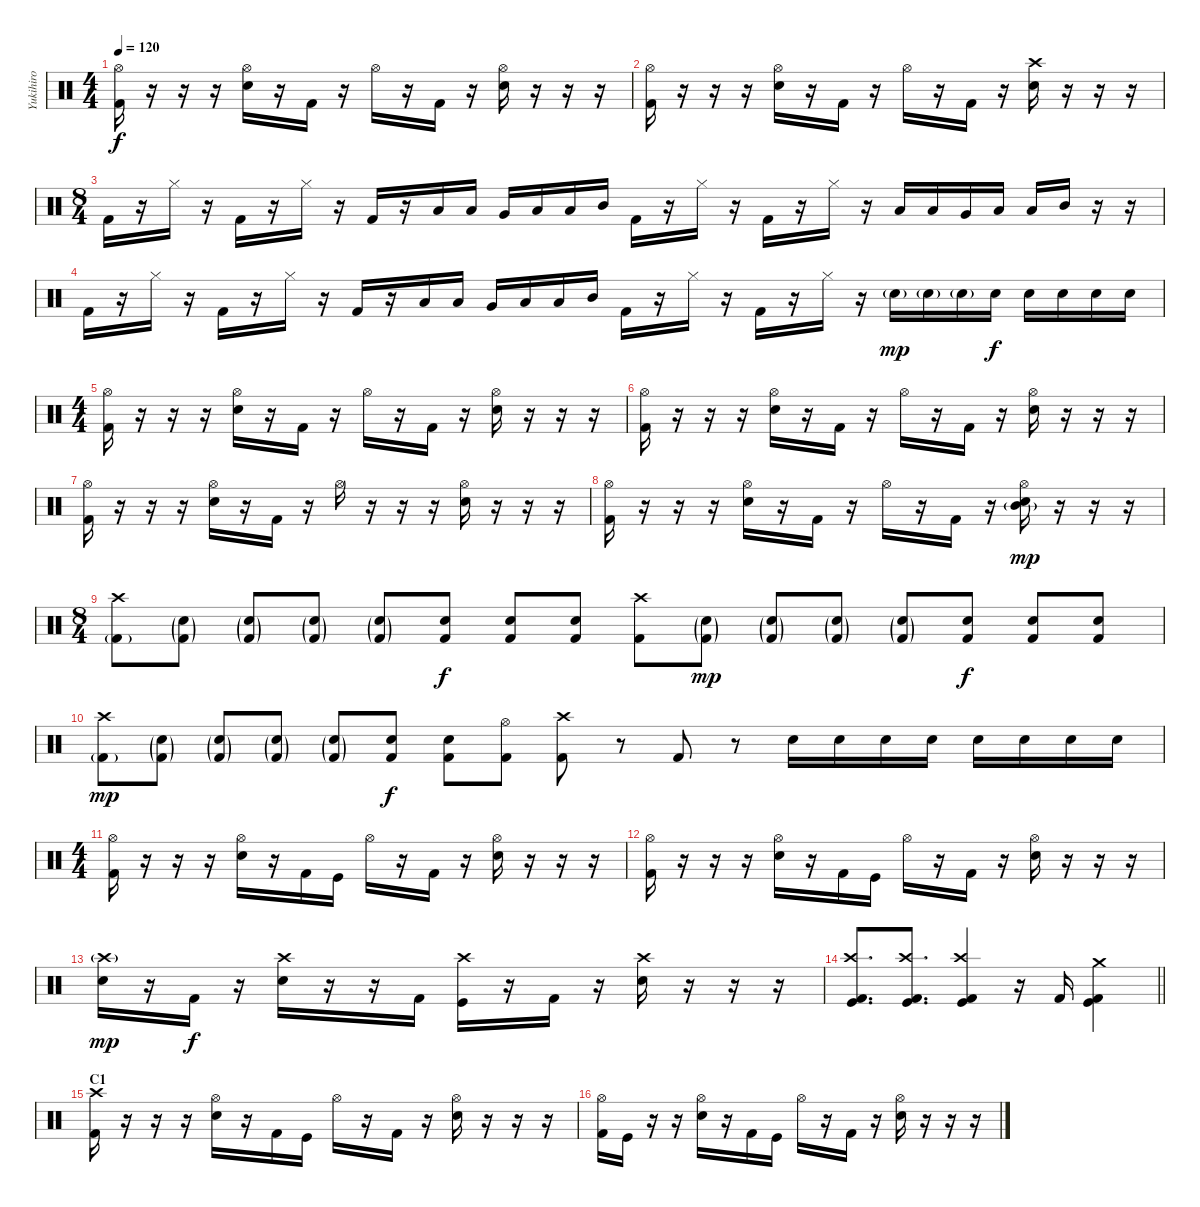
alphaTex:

\track ("Yukihiro" "Yukihiro") {instrument percussion}
\staff {score}
\articulation defaults
\ts (4 4)
\tempo 120
\clef neutral
\ks c
("Hi-Hat (open)" "Kick (hit) 2").16{dy f} r.16 r.16 r.16 ("Hi-Hat (open)" "Snare (hit) 2").16 r.16 "Kick (hit) 2".16 r.16 "Hi-Hat (open)".16 r.16 "Kick (hit) 2".16 r.16 ("Hi-Hat (open)" "Snare (hit) 2").16 r.16 r.16 r.16 |
("Hi-Hat (open)" "Kick (hit) 2").16 r.16 r.16 r.16 ("Hi-Hat (open)" "Snare (hit) 2").16 r.16 "Kick (hit) 2".16 r.16 "Hi-Hat (open)".16 r.16 "Kick (hit) 2".16 r.16 ("Crash high (hit)" "Snare (hit) 2").16 r.16 r.16 r.16 |
\ts (8 4)
"Kick (hit) 2".16 r.16 "Hi-Hat (closed)".16 r.16 "Kick (hit) 2".16 r.16 "Hi-Hat (closed)".16 r.16 "Kick (hit) 2".16 r.16 "Low Tom (hit)".16 "Low Tom (hit)".16 "Very Low Tom (hit)".16 "Low Tom (hit)".16 "Low Tom (hit)".16 "Mid Tom (hit)".16 "Kick (hit) 2".16 r.16 "Hi-Hat (closed)".16 r.16 "Kick (hit) 2".16 r.16 "Hi-Hat (closed)".16 r.16 "Low Tom (hit)".16 "Low Tom (hit)".16 "Very Low Tom (hit)".16 "Low Tom (hit)".16 "Low Tom (hit)".16 "Mid Tom (hit)".16 r.16 r.16 |
"Kick (hit) 2".16 r.16 "Hi-Hat (closed)".16 r.16 "Kick (hit) 2".16 r.16 "Hi-Hat (closed)".16 r.16 "Kick (hit) 2".16 r.16 "Low Tom (hit)".16 "Low Tom (hit)".16 "Very Low Tom (hit)".16 "Low Tom (hit)".16 "Low Tom (hit)".16 "Mid Tom (hit)".16 "Kick (hit) 2".16 r.16 "Hi-Hat (closed)".16 r.16 "Kick (hit) 2".16 r.16 "Hi-Hat (closed)".16 r.16 "Snare (hit) 2"{g}.16{dy mp} "Snare (hit) 2"{g}.16 "Snare (hit) 2"{g}.16 "Snare (hit) 2".16{dy f} "Snare (hit) 2".16 "Snare (hit) 2".16 "Snare (hit) 2".16 "Snare (hit) 2".16 |
\ts (4 4)
("Hi-Hat (open)" "Kick (hit) 2").16 r.16 r.16 r.16 ("Hi-Hat (open)" "Snare (hit) 2").16 r.16 "Kick (hit) 2".16 r.16 "Hi-Hat (open)".16 r.16 "Kick (hit) 2".16 r.16 ("Hi-Hat (open)" "Snare (hit) 2").16 r.16 r.16 r.16 |
("Hi-Hat (open)" "Kick (hit) 2").16 r.16 r.16 r.16 ("Hi-Hat (open)" "Snare (hit) 2").16 r.16 "Kick (hit) 2".16 r.16 "Hi-Hat (open)".16 r.16 "Kick (hit) 2".16 r.16 ("Hi-Hat (open)" "Snare (hit) 2").16 r.16 r.16 r.16 |
("Hi-Hat (open)" "Kick (hit) 2").16 r.16 r.16 r.16 ("Hi-Hat (open)" "Snare (hit) 2").16 r.16 "Kick (hit) 2".16 r.16 "Hi-Hat (open)".16 r.16 r.16 r.16 ("Hi-Hat (open)" "Snare (hit) 2").16 r.16 r.16 r.16 |
("Hi-Hat (open)" "Kick (hit) 2").16 r.16 r.16 r.16 ("Hi-Hat (open)" "Snare (hit) 2").16 r.16 "Kick (hit) 2".16 r.16 "Hi-Hat (open)".16 r.16 "Kick (hit) 2".16 r.16 ("Mid Tom (hit)"{g} "Hi-Hat (open)" "Snare (hit) 2").16{dy mp} r.16 r.16 r.16 |
\ts (8 4)
("Crash high (hit)" "Kick (hit) 2"{g}).8 ("Snare (hit) 2"{g} "Kick (hit) 2"{g}).8 ("Snare (hit) 2"{g} "Kick (hit) 2"{g}).8 ("Snare (hit) 2"{g} "Kick (hit) 2"{g}).8 ("Snare (hit) 2"{g} "Kick (hit) 2"{g}).8 ("Snare (hit) 2" "Kick (hit) 2").8{dy f} ("Snare (hit) 2" "Kick (hit) 2").8 ("Snare (hit) 2" "Kick (hit) 2").8 ("Crash high (hit)" "Kick (hit) 2").8 ("Snare (hit) 2"{g} "Kick (hit) 2"{g}).8{dy mp} ("Snare (hit) 2"{g} "Kick (hit) 2"{g}).8 ("Snare (hit) 2"{g} "Kick (hit) 2"{g}).8 ("Snare (hit) 2"{g} "Kick (hit) 2"{g}).8 ("Snare (hit) 2" "Kick (hit) 2").8{dy f} ("Snare (hit) 2" "Kick (hit) 2").8 ("Snare (hit) 2" "Kick (hit) 2").8 |
("Crash high (hit)" "Kick (hit) 2"{g}).8{dy mp} ("Snare (hit) 2"{g} "Kick (hit) 2"{g}).8 ("Snare (hit) 2"{g} "Kick (hit) 2"{g}).8 ("Snare (hit) 2"{g} "Kick (hit) 2"{g}).8 ("Snare (hit) 2"{g} "Kick (hit) 2"{g}).8 ("Snare (hit) 2" "Kick (hit) 2").8{dy f} ("Snare (hit) 2" "Kick (hit) 2").8 ("Hi-Hat (open)" "Kick (hit) 2").8 ("Crash high (hit)" "Kick (hit) 2").8 r.8 "Kick (hit) 2".8 r.8 "Snare (hit) 2".16 "Snare (hit) 2".16 "Snare (hit) 2".16 "Snare (hit) 2".16 "Snare (hit) 2".16 "Snare (hit) 2".16 "Snare (hit) 2".16 "Snare (hit) 2".16 |
\ts (4 4)
("Hi-Hat (open)" "Kick (hit) 2").16 r.16 r.16 r.16 ("Hi-Hat (open)" "Snare (hit) 2").16 r.16 "Kick (hit) 2".16 "Kick (hit)".16 "Hi-Hat (open)".16 r.16 "Kick (hit) 2".16 r.16 ("Hi-Hat (open)" "Snare (hit) 2").16 r.16 r.16 r.16 |
("Hi-Hat (open)" "Kick (hit) 2").16 r.16 r.16 r.16 ("Hi-Hat (open)" "Snare (hit) 2").16 r.16 "Kick (hit) 2".16 "Kick (hit)".16 "Hi-Hat (open)".16 r.16 "Kick (hit) 2".16 r.16 ("Hi-Hat (open)" "Snare (hit) 2").16 r.16 r.16 r.16 |
("Crash high (hit)"{g} "Snare (hit) 2").16{dy mp} r.16 "Kick (hit) 2".16{dy f} r.16 ("Crash high (hit)" "Snare (hit) 2").16 r.16 r.16 "Kick (hit) 2".16 ("Crash high (hit)" "Kick (hit)").16 r.16 "Kick (hit) 2".16 r.16 ("Crash high (hit)" "Snare (hit) 2").16 r.16 r.16 r.16 |
\barLineRight lightlight
("Crash high (hit)" "Kick (hit)" "Kick (hit) 2").8{d} ("Crash high (hit)" "Kick (hit)" "Kick (hit) 2").8{d} ("Crash high (hit)" "Kick (hit)" "Kick (hit) 2").4 r.16 "Kick (hit) 2".16 ("Crash medium (hit)" "Kick (hit)" "Kick (hit) 2").4 |
\section ("" "C1")
("Crash high (hit)" "Kick (hit) 2").16 r.16 r.16 r.16 ("Hi-Hat (open)" "Snare (hit) 2").16 r.16 "Kick (hit) 2".16 "Kick (hit)".16 "Hi-Hat (open)".16 r.16 "Kick (hit) 2".16 r.16 ("Hi-Hat (open)" "Snare (hit) 2").16 r.16 r.16 r.16 |
("Hi-Hat (open)" "Kick (hit) 2").16 "Kick (hit)".16 r.16 r.16 ("Hi-Hat (open)" "Snare (hit) 2").16 r.16 "Kick (hit) 2".16 "Kick (hit)".16 "Hi-Hat (open)".16 r.16 "Kick (hit) 2".16 r.16 ("Hi-Hat (open)" "Snare (hit) 2").16 r.16 r.16 r.16
